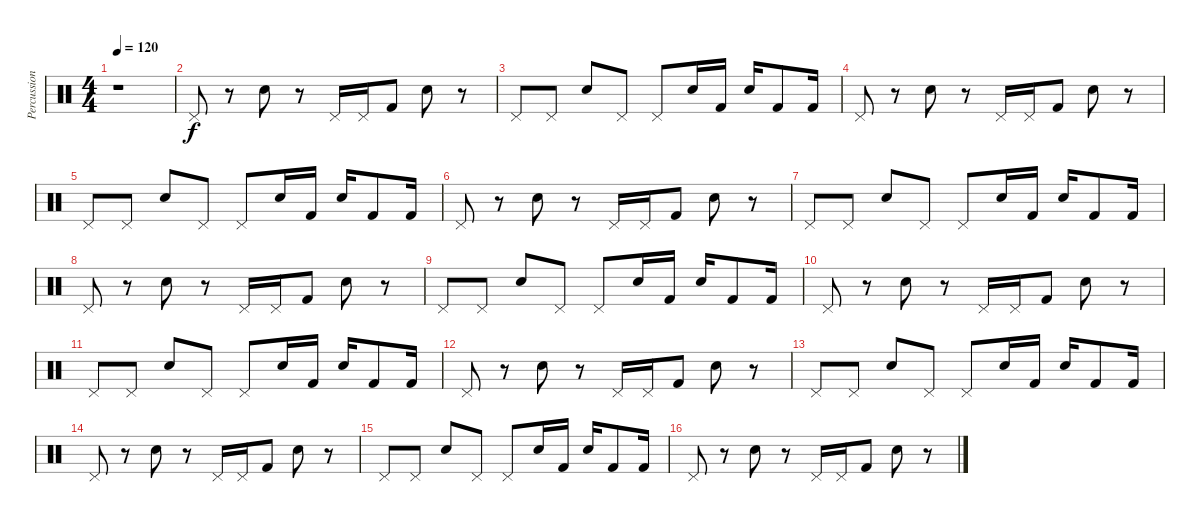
\track ("Percussion" "Percussion") {instrument percussion}
\staff {score}
\articulation defaults
\ts (4 4)
\tempo 120
\clef neutral
\ks c
r.1{dy f} |
"Pedal Hi-Hat (hit)".8 r.8 "Electric Snare (hit)".8 r.8 "Pedal Hi-Hat (hit)".16 "Pedal Hi-Hat (hit)".16 "Kick (hit) 2".8 "Electric Snare (hit)".8 r.8 |
"Pedal Hi-Hat (hit)".8 "Pedal Hi-Hat (hit)".8 "Electric Snare (hit)".8 "Pedal Hi-Hat (hit)".8 "Pedal Hi-Hat (hit)".8 "Electric Snare (hit)".16 "Kick (hit) 2".16 "Electric Snare (hit)".16 "Kick (hit) 2".8 "Kick (hit) 2".16 |
"Pedal Hi-Hat (hit)".8 r.8 "Electric Snare (hit)".8 r.8 "Pedal Hi-Hat (hit)".16 "Pedal Hi-Hat (hit)".16 "Kick (hit) 2".8 "Electric Snare (hit)".8 r.8 |
"Pedal Hi-Hat (hit)".8 "Pedal Hi-Hat (hit)".8 "Electric Snare (hit)".8 "Pedal Hi-Hat (hit)".8 "Pedal Hi-Hat (hit)".8 "Electric Snare (hit)".16 "Kick (hit) 2".16 "Electric Snare (hit)".16 "Kick (hit) 2".8 "Kick (hit) 2".16 |
"Pedal Hi-Hat (hit)".8 r.8 "Electric Snare (hit)".8 r.8 "Pedal Hi-Hat (hit)".16 "Pedal Hi-Hat (hit)".16 "Kick (hit) 2".8 "Electric Snare (hit)".8 r.8 |
"Pedal Hi-Hat (hit)".8 "Pedal Hi-Hat (hit)".8 "Electric Snare (hit)".8 "Pedal Hi-Hat (hit)".8 "Pedal Hi-Hat (hit)".8 "Electric Snare (hit)".16 "Kick (hit) 2".16 "Electric Snare (hit)".16 "Kick (hit) 2".8 "Kick (hit) 2".16 |
"Pedal Hi-Hat (hit)".8 r.8 "Electric Snare (hit)".8 r.8 "Pedal Hi-Hat (hit)".16 "Pedal Hi-Hat (hit)".16 "Kick (hit) 2".8 "Electric Snare (hit)".8 r.8 |
"Pedal Hi-Hat (hit)".8 "Pedal Hi-Hat (hit)".8 "Electric Snare (hit)".8 "Pedal Hi-Hat (hit)".8 "Pedal Hi-Hat (hit)".8 "Electric Snare (hit)".16 "Kick (hit) 2".16 "Electric Snare (hit)".16 "Kick (hit) 2".8 "Kick (hit) 2".16 |
"Pedal Hi-Hat (hit)".8 r.8 "Electric Snare (hit)".8 r.8 "Pedal Hi-Hat (hit)".16 "Pedal Hi-Hat (hit)".16 "Kick (hit) 2".8 "Electric Snare (hit)".8 r.8 |
"Pedal Hi-Hat (hit)".8 "Pedal Hi-Hat (hit)".8 "Electric Snare (hit)".8 "Pedal Hi-Hat (hit)".8 "Pedal Hi-Hat (hit)".8 "Electric Snare (hit)".16 "Kick (hit) 2".16 "Electric Snare (hit)".16 "Kick (hit) 2".8 "Kick (hit) 2".16 |
"Pedal Hi-Hat (hit)".8 r.8 "Electric Snare (hit)".8 r.8 "Pedal Hi-Hat (hit)".16 "Pedal Hi-Hat (hit)".16 "Kick (hit) 2".8 "Electric Snare (hit)".8 r.8 |
"Pedal Hi-Hat (hit)".8 "Pedal Hi-Hat (hit)".8 "Electric Snare (hit)".8 "Pedal Hi-Hat (hit)".8 "Pedal Hi-Hat (hit)".8 "Electric Snare (hit)".16 "Kick (hit) 2".16 "Electric Snare (hit)".16 "Kick (hit) 2".8 "Kick (hit) 2".16 |
"Pedal Hi-Hat (hit)".8 r.8 "Electric Snare (hit)".8 r.8 "Pedal Hi-Hat (hit)".16 "Pedal Hi-Hat (hit)".16 "Kick (hit) 2".8 "Electric Snare (hit)".8 r.8 |
"Pedal Hi-Hat (hit)".8 "Pedal Hi-Hat (hit)".8 "Electric Snare (hit)".8 "Pedal Hi-Hat (hit)".8 "Pedal Hi-Hat (hit)".8 "Electric Snare (hit)".16 "Kick (hit) 2".16 "Electric Snare (hit)".16 "Kick (hit) 2".8 "Kick (hit) 2".16 |
"Pedal Hi-Hat (hit)".8 r.8 "Electric Snare (hit)".8 r.8 "Pedal Hi-Hat (hit)".16 "Pedal Hi-Hat (hit)".16 "Kick (hit) 2".8 "Electric Snare (hit)".8 r.8
